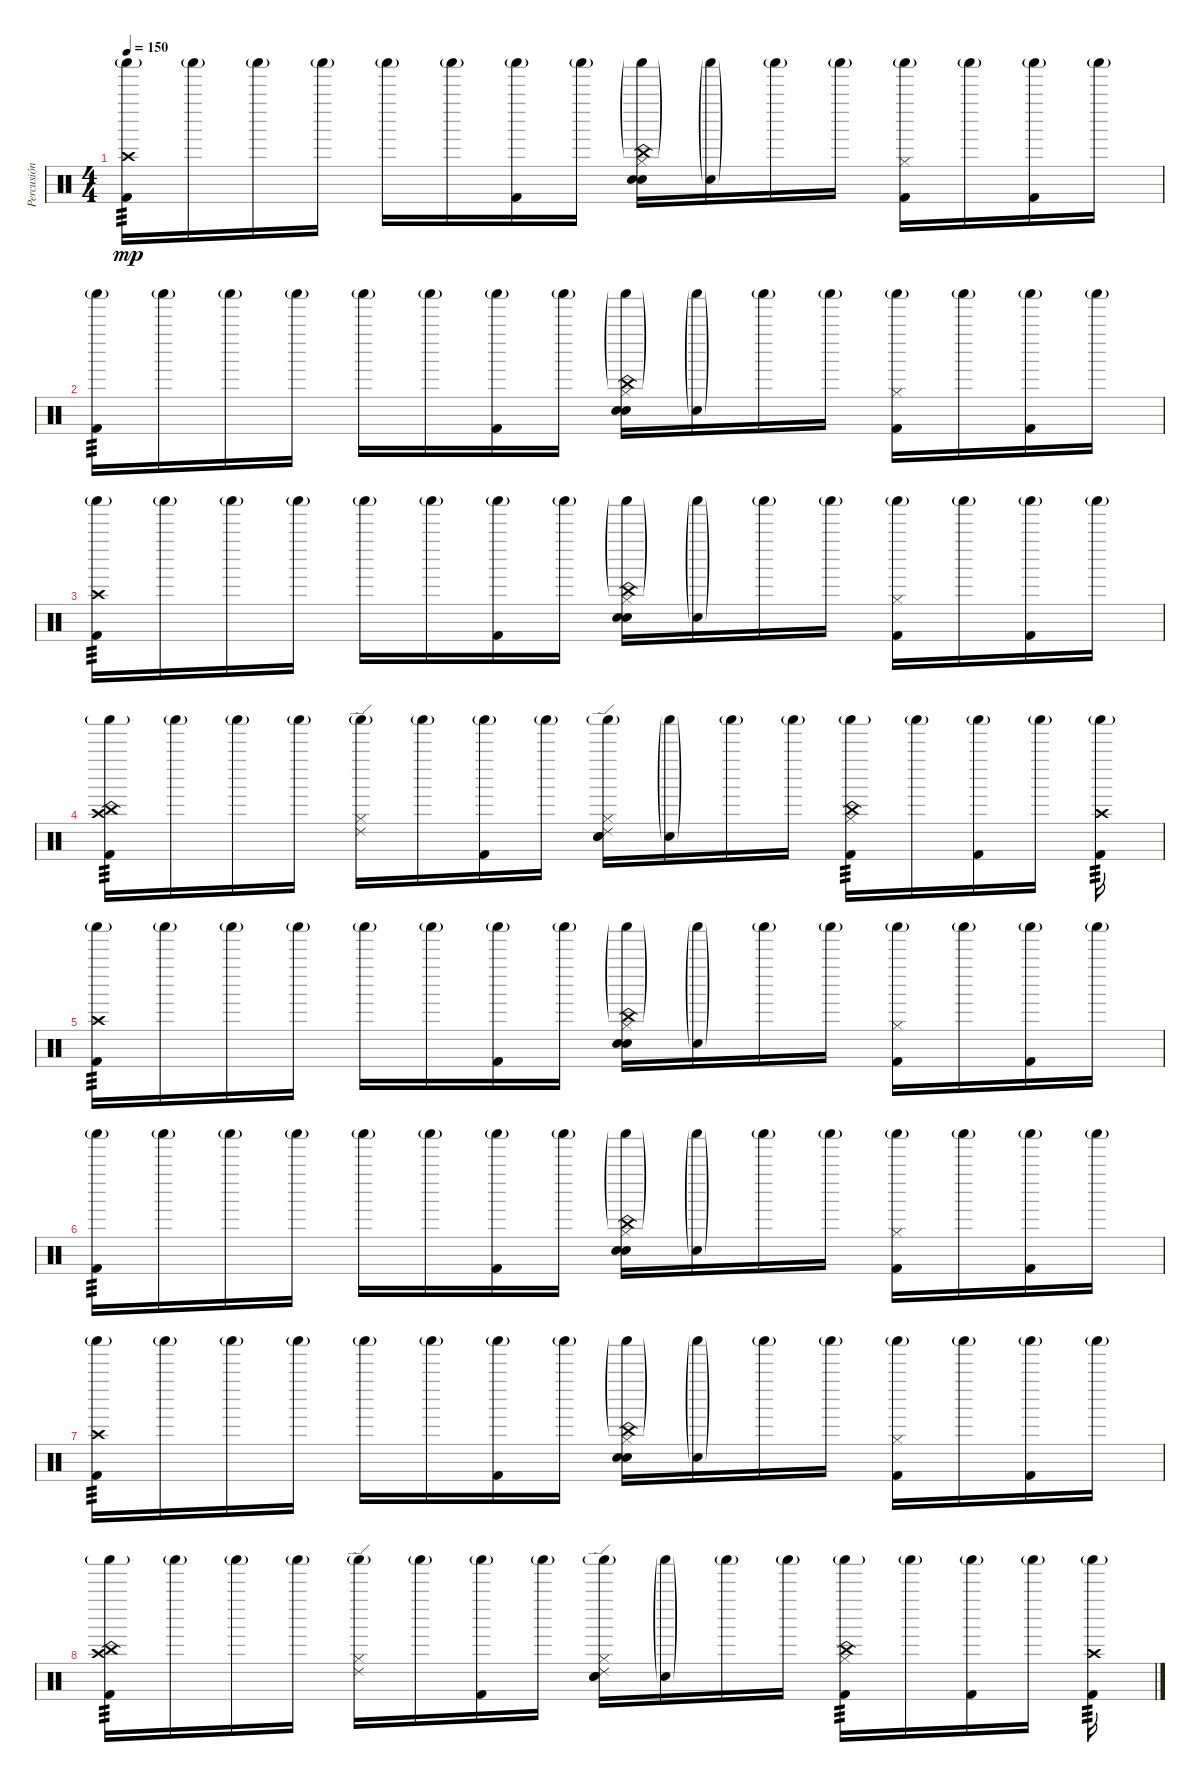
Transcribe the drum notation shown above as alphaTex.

\track ("Percusión" "Percusión") {instrument percussion}
\staff {score}
\articulation defaults
\ts (4 4)
\tempo 150
\clef neutral
\ks c
("Crash high (hit)" "Shaker (hit)"{g} "Kick (hit) 2").16{tp 3 dy mp} "Shaker (hit)"{g}.16 "Shaker (hit)"{g}.16 "Shaker (hit)"{g}.16 "Shaker (hit)"{g}.16 "Shaker (hit)"{g}.16 ("Shaker (hit)"{g} "Kick (hit) 2").16 "Shaker (hit)"{g}.16 ("China (hit)"{g} "Hand Clap (hit)" "Hi-Hat (closed)" "Shaker (hit)"{g} "Electric Snare (hit)").16 ("Hand Clap (hit)"{g} "Shaker (hit)"{g}).16 "Shaker (hit)"{g}.16 "Shaker (hit)"{g}.16 ("Hi-Hat (closed)" "Shaker (hit)"{g} "Kick (hit) 2").16 "Shaker (hit)"{g}.16 ("Shaker (hit)"{g} "Kick (hit) 2").16 "Shaker (hit)"{g}.16 |
("Shaker (hit)"{g} "Kick (hit) 2").16{tp 3} "Shaker (hit)"{g}.16 "Shaker (hit)"{g}.16 "Shaker (hit)"{g}.16 "Shaker (hit)"{g}.16 "Shaker (hit)"{g}.16 ("Shaker (hit)"{g} "Kick (hit) 2").16 "Shaker (hit)"{g}.16 ("China (hit)"{g} "Hand Clap (hit)" "Hi-Hat (closed)" "Shaker (hit)"{g} "Electric Snare (hit)").16 ("Hand Clap (hit)"{g} "Shaker (hit)"{g}).16 "Shaker (hit)"{g}.16 "Shaker (hit)"{g}.16 ("Hi-Hat (closed)" "Shaker (hit)"{g} "Kick (hit) 2").16 "Shaker (hit)"{g}.16 ("Shaker (hit)"{g} "Kick (hit) 2").16 "Shaker (hit)"{g}.16 |
("Crash high (hit)" "Shaker (hit)"{g} "Kick (hit) 2").16{tp 3} "Shaker (hit)"{g}.16 "Shaker (hit)"{g}.16 "Shaker (hit)"{g}.16 "Shaker (hit)"{g}.16 "Shaker (hit)"{g}.16 ("Shaker (hit)"{g} "Kick (hit) 2").16 "Shaker (hit)"{g}.16 ("China (hit)"{g} "Hand Clap (hit)" "Hi-Hat (closed)" "Shaker (hit)"{g} "Electric Snare (hit)").16 ("Hand Clap (hit)"{g} "Shaker (hit)"{g}).16 "Shaker (hit)"{g}.16 "Shaker (hit)"{g}.16 ("Hi-Hat (closed)" "Shaker (hit)"{g} "Kick (hit) 2").16 "Shaker (hit)"{g}.16 ("Shaker (hit)"{g} "Kick (hit) 2").16 "Shaker (hit)"{g}.16 |
("China (hit)" "Crash high (hit)" "Shaker (hit)"{g} "Kick (hit) 2").16{tp 3} "Shaker (hit)"{g}.16 "Shaker (hit)"{g}.16 "Shaker (hit)"{g}.16 ("Ride (edge) 2" "Hi-Hat (closed)" "Shaker (hit)"{g}).16 "Shaker (hit)"{g}.16 ("Shaker (hit)"{g} "Kick (hit) 2").16 "Shaker (hit)"{g}.16 ("Ride (edge) 2" "Hand Clap (hit)" "Hi-Hat (closed)" "Shaker (hit)"{g} "Electric Snare (hit)").16 ("Hand Clap (hit)"{g} "Shaker (hit)"{g}).16 "Shaker (hit)"{g}.16 "Shaker (hit)"{g}.16 ("China (hit)" "Hi-Hat (closed)" "Shaker (hit)"{g} "Kick (hit) 2").16{tp 3} "Shaker (hit)"{g}.16 ("Shaker (hit)"{g} "Kick (hit) 2").16 "Shaker (hit)"{g}.16 ("Crash high (hit)" "Shaker (hit)"{g} "Kick (hit) 2").16{tp 3} |
("Crash high (hit)" "Shaker (hit)"{g} "Kick (hit) 2").16{tp 3} "Shaker (hit)"{g}.16 "Shaker (hit)"{g}.16 "Shaker (hit)"{g}.16 "Shaker (hit)"{g}.16 "Shaker (hit)"{g}.16 ("Shaker (hit)"{g} "Kick (hit) 2").16 "Shaker (hit)"{g}.16 ("China (hit)"{g} "Hand Clap (hit)" "Hi-Hat (closed)" "Shaker (hit)"{g} "Electric Snare (hit)").16 ("Hand Clap (hit)"{g} "Shaker (hit)"{g}).16 "Shaker (hit)"{g}.16 "Shaker (hit)"{g}.16 ("Hi-Hat (closed)" "Shaker (hit)"{g} "Kick (hit) 2").16 "Shaker (hit)"{g}.16 ("Shaker (hit)"{g} "Kick (hit) 2").16 "Shaker (hit)"{g}.16 |
("Shaker (hit)"{g} "Kick (hit) 2").16{tp 3} "Shaker (hit)"{g}.16 "Shaker (hit)"{g}.16 "Shaker (hit)"{g}.16 "Shaker (hit)"{g}.16 "Shaker (hit)"{g}.16 ("Shaker (hit)"{g} "Kick (hit) 2").16 "Shaker (hit)"{g}.16 ("China (hit)"{g} "Hand Clap (hit)" "Hi-Hat (closed)" "Shaker (hit)"{g} "Electric Snare (hit)").16 ("Hand Clap (hit)"{g} "Shaker (hit)"{g}).16 "Shaker (hit)"{g}.16 "Shaker (hit)"{g}.16 ("Hi-Hat (closed)" "Shaker (hit)"{g} "Kick (hit) 2").16 "Shaker (hit)"{g}.16 ("Shaker (hit)"{g} "Kick (hit) 2").16 "Shaker (hit)"{g}.16 |
("Crash high (hit)" "Shaker (hit)"{g} "Kick (hit) 2").16{tp 3} "Shaker (hit)"{g}.16 "Shaker (hit)"{g}.16 "Shaker (hit)"{g}.16 "Shaker (hit)"{g}.16 "Shaker (hit)"{g}.16 ("Shaker (hit)"{g} "Kick (hit) 2").16 "Shaker (hit)"{g}.16 ("China (hit)"{g} "Hand Clap (hit)" "Hi-Hat (closed)" "Shaker (hit)"{g} "Electric Snare (hit)").16 ("Hand Clap (hit)"{g} "Shaker (hit)"{g}).16 "Shaker (hit)"{g}.16 "Shaker (hit)"{g}.16 ("Hi-Hat (closed)" "Shaker (hit)"{g} "Kick (hit) 2").16 "Shaker (hit)"{g}.16 ("Shaker (hit)"{g} "Kick (hit) 2").16 "Shaker (hit)"{g}.16 |
("China (hit)" "Crash high (hit)" "Shaker (hit)"{g} "Kick (hit) 2").16{tp 3} "Shaker (hit)"{g}.16 "Shaker (hit)"{g}.16 "Shaker (hit)"{g}.16 ("Ride (edge) 2" "Hi-Hat (closed)" "Shaker (hit)"{g}).16 "Shaker (hit)"{g}.16 ("Shaker (hit)"{g} "Kick (hit) 2").16 "Shaker (hit)"{g}.16 ("Ride (edge) 2" "Hand Clap (hit)" "Hi-Hat (closed)" "Shaker (hit)"{g} "Electric Snare (hit)").16 ("Hand Clap (hit)"{g} "Shaker (hit)"{g}).16 "Shaker (hit)"{g}.16 "Shaker (hit)"{g}.16 ("China (hit)" "Hi-Hat (closed)" "Shaker (hit)"{g} "Kick (hit) 2").16{tp 3} "Shaker (hit)"{g}.16 ("Shaker (hit)"{g} "Kick (hit) 2").16 "Shaker (hit)"{g}.16 ("Crash high (hit)" "Shaker (hit)"{g} "Kick (hit) 2").16{tp 3}
